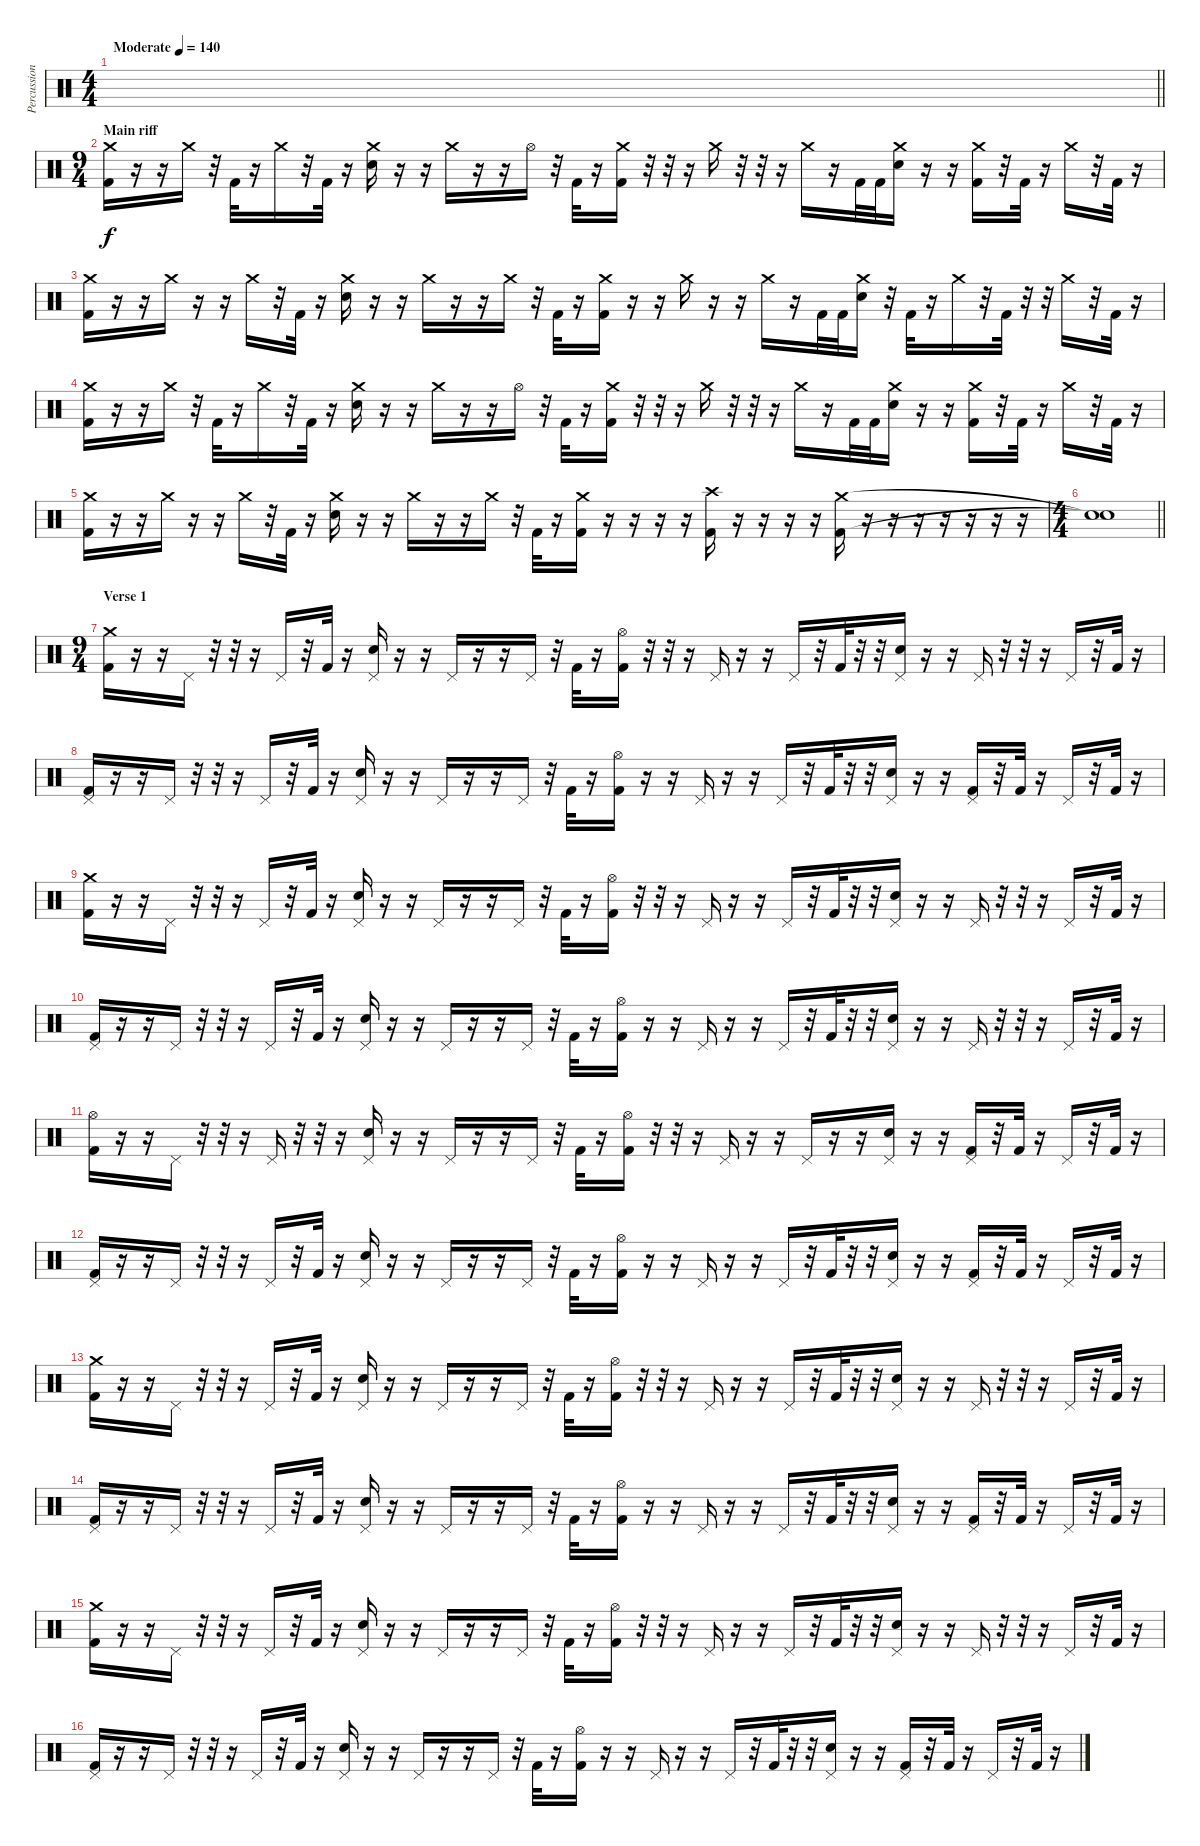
\track ("Percussion" "Percussion") {instrument percussion}
\staff {score}
\articulation defaults
\ts (4 4)
\tempo (140 "Moderate")
\clef neutral
\barLineRight lightlight
\ks c
|
\ts (9 4)
\section ("" "Main riff")
("Crash medium (hit)" "Kick (hit) 2").16 r.16 r.16 "Crash medium (hit)".16 r.32 "Kick (hit) 2".32 r.16 "Crash medium (hit)".16 r.32 "Kick (hit) 2".32 r.16 ("Crash medium (hit)" "Electric Snare (hit)").16 r.16 r.16 "Crash medium (hit)".16 r.16 r.16 "Hi-Hat (open)".16 r.32 "Kick (hit) 2".32 r.16 ("Crash medium (hit)" "Kick (hit) 2").16 r.32 r.32 r.16 "Crash medium (hit)".16 r.32 r.32 r.16 "Crash medium (hit)".16 r.16 "Kick (hit) 2".32 "Kick (hit) 2".32 ("Crash medium (hit)" "Electric Snare (hit)").16 r.16 r.16 ("Crash medium (hit)" "Kick (hit) 2").16 r.32 "Kick (hit) 2".32 r.16 "Crash medium (hit)".16 r.32 "Kick (hit) 2".32 r.16 |
("Crash medium (hit)" "Kick (hit) 2").16 r.16 r.16 "Crash medium (hit)".16 r.16 r.16 "Crash medium (hit)".16 r.32 "Kick (hit) 2".32 r.16 ("Crash medium (hit)" "Electric Snare (hit)").16 r.16 r.16 "Crash medium (hit)".16 r.16 r.16 "Crash medium (hit)".16 r.32 "Kick (hit) 2".32 r.16 ("Crash medium (hit)" "Kick (hit) 2").16 r.16 r.16 "Crash medium (hit)".16 r.16 r.16 "Crash medium (hit)".16 r.16 "Kick (hit) 2".32 "Kick (hit) 2".32 ("Crash medium (hit)" "Electric Snare (hit)").16 r.32 "Kick (hit) 2".32 r.16 "Crash medium (hit)".16 r.32 "Kick (hit) 2".32 r.32 r.32 "Crash medium (hit)".16 r.32 "Kick (hit) 2".32 r.16 |
("Crash medium (hit)" "Kick (hit) 2").16 r.16 r.16 "Crash medium (hit)".16 r.32 "Kick (hit) 2".32 r.16 "Crash medium (hit)".16 r.32 "Kick (hit) 2".32 r.16 ("Crash medium (hit)" "Electric Snare (hit)").16 r.16 r.16 "Crash medium (hit)".16 r.16 r.16 "Hi-Hat (open)".16 r.32 "Kick (hit) 2".32 r.16 ("Crash medium (hit)" "Kick (hit) 2").16 r.32 r.32 r.16 "Crash medium (hit)".16 r.32 r.32 r.16 "Crash medium (hit)".16 r.16 "Kick (hit) 2".32 "Kick (hit) 2".32 ("Crash medium (hit)" "Electric Snare (hit)").16 r.16 r.16 ("Crash medium (hit)" "Kick (hit) 2").16 r.32 "Kick (hit) 2".32 r.16 "Crash medium (hit)".16 r.32 "Kick (hit) 2".32 r.16 |
("Crash medium (hit)" "Kick (hit) 2").16 r.16 r.16 "Crash medium (hit)".16 r.16 r.16 "Crash medium (hit)".16 r.32 "Kick (hit) 2".32 r.16 ("Crash medium (hit)" "Electric Snare (hit)").16 r.16 r.16 "Crash medium (hit)".16 r.16 r.16 "Crash medium (hit)".16 r.32 "Kick (hit) 2".32 r.16 ("Crash medium (hit)" "Kick (hit) 2").16 r.16 r.16 r.16 r.16 ("Crash high (hit)" "Kick (hit) 2").16 r.16 r.16 r.16 r.16 ("Crash medium (hit)" "Kick (hit) 2").16 r.16 r.16 r.16 r.16 r.16 r.16 r.16 |
\ts (4 4)
\barLineRight lightlight
("Snare (hit)"{t} "Snare (hit)"{t}).1 |
\ts (9 4)
\section ("" "Verse 1")
("Crash medium (hit)" "Kick (hit) 2").16 r.16 r.16 "Pedal Hi-Hat (hit)".16 r.32 r.32 r.16 "Pedal Hi-Hat (hit)".16 r.32 "Kick (hit) 2".32 r.16 ("Pedal Hi-Hat (hit)" "Electric Snare (hit)").16 r.16 r.16 "Pedal Hi-Hat (hit)".16 r.16 r.16 "Pedal Hi-Hat (hit)".16 r.32 "Kick (hit) 2".32 r.16 ("Hi-Hat (open)" "Kick (hit) 2").16 r.32 r.32 r.16 "Pedal Hi-Hat (hit)".16 r.16 r.16 "Pedal Hi-Hat (hit)".16 r.32 "Kick (hit) 2".32 r.32 r.32 ("Pedal Hi-Hat (hit)" "Electric Snare (hit)").16 r.16 r.16 "Pedal Hi-Hat (hit)".16 r.32 r.32 r.16 "Pedal Hi-Hat (hit)".16 r.32 "Kick (hit) 2".32 r.16 |
("Pedal Hi-Hat (hit)" "Kick (hit) 2").16 r.16 r.16 "Pedal Hi-Hat (hit)".16 r.32 r.32 r.16 "Pedal Hi-Hat (hit)".16 r.32 "Kick (hit) 2".32 r.16 ("Pedal Hi-Hat (hit)" "Electric Snare (hit)").16 r.16 r.16 "Pedal Hi-Hat (hit)".16 r.16 r.16 "Pedal Hi-Hat (hit)".16 r.32 "Kick (hit) 2".32 r.16 ("Hi-Hat (open)" "Kick (hit) 2").16 r.16 r.16 "Pedal Hi-Hat (hit)".16 r.16 r.16 "Pedal Hi-Hat (hit)".16 r.32 "Kick (hit) 2".32 r.32 r.32 ("Pedal Hi-Hat (hit)" "Electric Snare (hit)").16 r.16 r.16 ("Pedal Hi-Hat (hit)" "Kick (hit) 2").16 r.32 "Kick (hit) 2".32 r.16 "Pedal Hi-Hat (hit)".16 r.32 "Kick (hit) 2".32 r.16 |
("Crash medium (hit)" "Kick (hit) 2").16 r.16 r.16 "Pedal Hi-Hat (hit)".16 r.32 r.32 r.16 "Pedal Hi-Hat (hit)".16 r.32 "Kick (hit) 2".32 r.16 ("Pedal Hi-Hat (hit)" "Electric Snare (hit)").16 r.16 r.16 "Pedal Hi-Hat (hit)".16 r.16 r.16 "Pedal Hi-Hat (hit)".16 r.32 "Kick (hit) 2".32 r.16 ("Hi-Hat (open)" "Kick (hit) 2").16 r.32 r.32 r.16 "Pedal Hi-Hat (hit)".16 r.16 r.16 "Pedal Hi-Hat (hit)".16 r.32 "Kick (hit) 2".32 r.32 r.32 ("Pedal Hi-Hat (hit)" "Electric Snare (hit)").16 r.16 r.16 "Pedal Hi-Hat (hit)".16 r.32 r.32 r.16 "Pedal Hi-Hat (hit)".16 r.32 "Kick (hit) 2".32 r.16 |
("Pedal Hi-Hat (hit)" "Kick (hit) 2").16 r.16 r.16 "Pedal Hi-Hat (hit)".16 r.32 r.32 r.16 "Pedal Hi-Hat (hit)".16 r.32 "Kick (hit) 2".32 r.16 ("Pedal Hi-Hat (hit)" "Electric Snare (hit)").16 r.16 r.16 "Pedal Hi-Hat (hit)".16 r.16 r.16 "Pedal Hi-Hat (hit)".16 r.32 "Kick (hit) 2".32 r.16 ("Hi-Hat (open)" "Kick (hit) 2").16 r.16 r.16 "Pedal Hi-Hat (hit)".16 r.16 r.16 "Pedal Hi-Hat (hit)".16 r.32 "Kick (hit) 2".32 r.32 r.32 ("Pedal Hi-Hat (hit)" "Electric Snare (hit)").16 r.16 r.16 "Pedal Hi-Hat (hit)".16 r.32 r.32 r.16 "Pedal Hi-Hat (hit)".16 r.32 "Kick (hit) 2".32 r.16 |
("Hi-Hat (open)" "Kick (hit) 2").16 r.16 r.16 "Pedal Hi-Hat (hit)".16 r.32 r.32 r.16 "Pedal Hi-Hat (hit)".16 r.32 r.32 r.16 ("Pedal Hi-Hat (hit)" "Electric Snare (hit)").16 r.16 r.16 "Pedal Hi-Hat (hit)".16 r.16 r.16 "Pedal Hi-Hat (hit)".16 r.32 "Kick (hit) 2".32 r.16 ("Hi-Hat (open)" "Kick (hit) 2").16 r.32 r.32 r.16 "Pedal Hi-Hat (hit)".16 r.16 r.16 "Pedal Hi-Hat (hit)".16 r.16 r.16 ("Pedal Hi-Hat (hit)" "Electric Snare (hit)").16 r.16 r.16 ("Pedal Hi-Hat (hit)" "Kick (hit) 2").16 r.32 "Kick (hit) 2".32 r.16 "Pedal Hi-Hat (hit)".16 r.32 "Kick (hit) 2".32 r.16 |
("Pedal Hi-Hat (hit)" "Kick (hit) 2").16 r.16 r.16 "Pedal Hi-Hat (hit)".16 r.32 r.32 r.16 "Pedal Hi-Hat (hit)".16 r.32 "Kick (hit) 2".32 r.16 ("Pedal Hi-Hat (hit)" "Electric Snare (hit)").16 r.16 r.16 "Pedal Hi-Hat (hit)".16 r.16 r.16 "Pedal Hi-Hat (hit)".16 r.32 "Kick (hit) 2".32 r.16 ("Hi-Hat (open)" "Kick (hit) 2").16 r.16 r.16 "Pedal Hi-Hat (hit)".16 r.16 r.16 "Pedal Hi-Hat (hit)".16 r.32 "Kick (hit) 2".32 r.32 r.32 ("Pedal Hi-Hat (hit)" "Electric Snare (hit)").16 r.16 r.16 ("Pedal Hi-Hat (hit)" "Kick (hit) 2").16 r.32 "Kick (hit) 2".32 r.16 "Pedal Hi-Hat (hit)".16 r.32 "Kick (hit) 2".32 r.16 |
("Crash medium (hit)" "Kick (hit) 2").16 r.16 r.16 "Pedal Hi-Hat (hit)".16 r.32 r.32 r.16 "Pedal Hi-Hat (hit)".16 r.32 "Kick (hit) 2".32 r.16 ("Pedal Hi-Hat (hit)" "Electric Snare (hit)").16 r.16 r.16 "Pedal Hi-Hat (hit)".16 r.16 r.16 "Pedal Hi-Hat (hit)".16 r.32 "Kick (hit) 2".32 r.16 ("Hi-Hat (open)" "Kick (hit) 2").16 r.32 r.32 r.16 "Pedal Hi-Hat (hit)".16 r.16 r.16 "Pedal Hi-Hat (hit)".16 r.32 "Kick (hit) 2".32 r.32 r.32 ("Pedal Hi-Hat (hit)" "Electric Snare (hit)").16 r.16 r.16 "Pedal Hi-Hat (hit)".16 r.32 r.32 r.16 "Pedal Hi-Hat (hit)".16 r.32 "Kick (hit) 2".32 r.16 |
("Pedal Hi-Hat (hit)" "Kick (hit) 2").16 r.16 r.16 "Pedal Hi-Hat (hit)".16 r.32 r.32 r.16 "Pedal Hi-Hat (hit)".16 r.32 "Kick (hit) 2".32 r.16 ("Pedal Hi-Hat (hit)" "Electric Snare (hit)").16 r.16 r.16 "Pedal Hi-Hat (hit)".16 r.16 r.16 "Pedal Hi-Hat (hit)".16 r.32 "Kick (hit) 2".32 r.16 ("Hi-Hat (open)" "Kick (hit) 2").16 r.16 r.16 "Pedal Hi-Hat (hit)".16 r.16 r.16 "Pedal Hi-Hat (hit)".16 r.32 "Kick (hit) 2".32 r.32 r.32 ("Pedal Hi-Hat (hit)" "Electric Snare (hit)").16 r.16 r.16 ("Pedal Hi-Hat (hit)" "Kick (hit) 2").16 r.32 "Kick (hit) 2".32 r.16 "Pedal Hi-Hat (hit)".16 r.32 "Kick (hit) 2".32 r.16 |
("Crash medium (hit)" "Kick (hit) 2").16 r.16 r.16 "Pedal Hi-Hat (hit)".16 r.32 r.32 r.16 "Pedal Hi-Hat (hit)".16 r.32 "Kick (hit) 2".32 r.16 ("Pedal Hi-Hat (hit)" "Electric Snare (hit)").16 r.16 r.16 "Pedal Hi-Hat (hit)".16 r.16 r.16 "Pedal Hi-Hat (hit)".16 r.32 "Kick (hit) 2".32 r.16 ("Hi-Hat (open)" "Kick (hit) 2").16 r.32 r.32 r.16 "Pedal Hi-Hat (hit)".16 r.16 r.16 "Pedal Hi-Hat (hit)".16 r.32 "Kick (hit) 2".32 r.32 r.32 ("Pedal Hi-Hat (hit)" "Electric Snare (hit)").16 r.16 r.16 "Pedal Hi-Hat (hit)".16 r.32 r.32 r.16 "Pedal Hi-Hat (hit)".16 r.32 "Kick (hit) 2".32 r.16 |
("Pedal Hi-Hat (hit)" "Kick (hit) 2").16 r.16 r.16 "Pedal Hi-Hat (hit)".16 r.32 r.32 r.16 "Pedal Hi-Hat (hit)".16 r.32 "Kick (hit) 2".32 r.16 ("Pedal Hi-Hat (hit)" "Electric Snare (hit)").16 r.16 r.16 "Pedal Hi-Hat (hit)".16 r.16 r.16 "Pedal Hi-Hat (hit)".16 r.32 "Kick (hit) 2".32 r.16 ("Hi-Hat (open)" "Kick (hit) 2").16 r.16 r.16 "Pedal Hi-Hat (hit)".16 r.16 r.16 "Pedal Hi-Hat (hit)".16 r.32 "Kick (hit) 2".32 r.32 r.32 ("Pedal Hi-Hat (hit)" "Electric Snare (hit)").16 r.16 r.16 ("Pedal Hi-Hat (hit)" "Kick (hit) 2").16 r.32 "Kick (hit) 2".32 r.16 "Pedal Hi-Hat (hit)".16 r.32 "Kick (hit) 2".32 r.16
